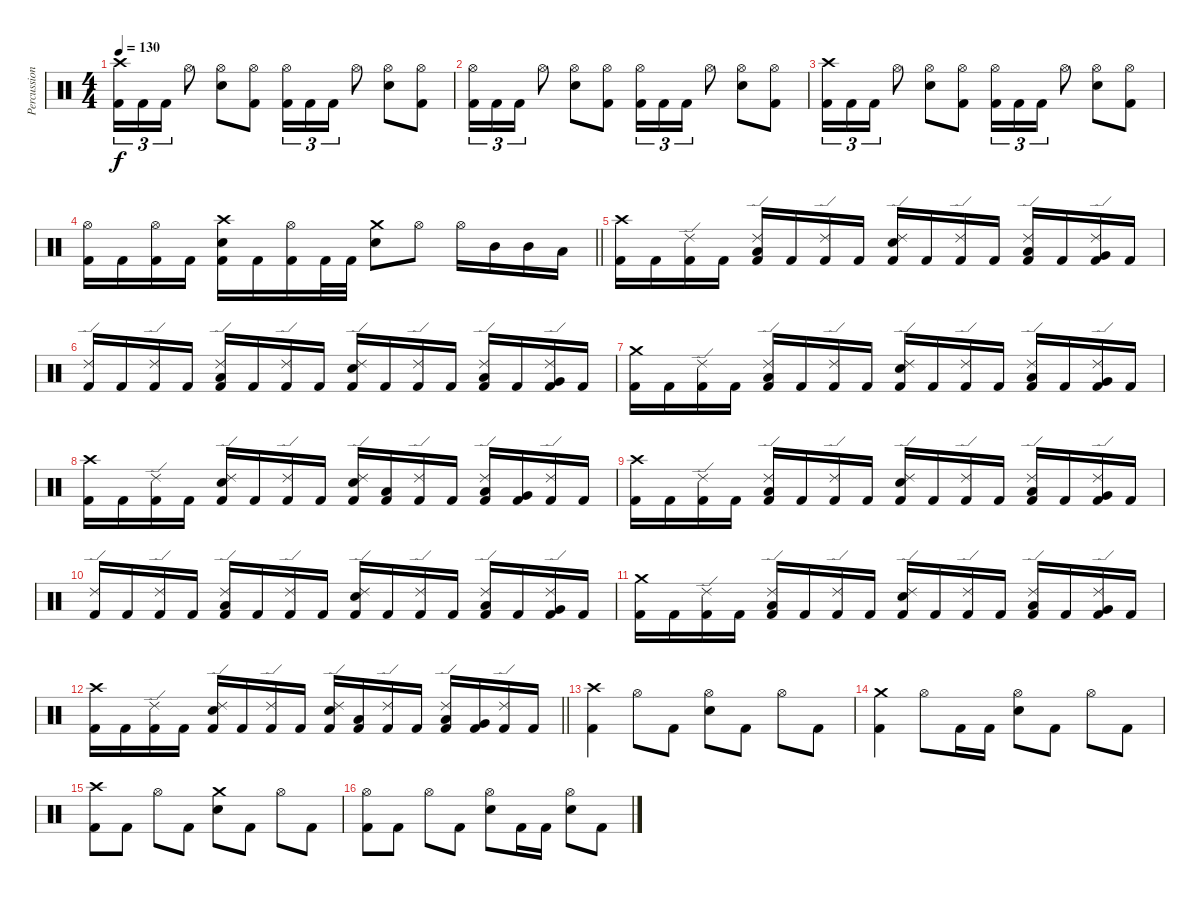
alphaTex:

\track ("Percussion" "Percussion") {instrument percussion}
\staff {score}
\articulation defaults
\ts (4 4)
\tempo 130
\clef neutral
\ks c
("Crash high (hit)" "Kick (hit) 2").16{tu (3 2) dy f} "Kick (hit) 2".16{tu (3 2)} "Kick (hit) 2".16{tu (3 2)} "Hi-Hat (open)".8 ("Hi-Hat (open)" "Electric Snare (hit)").8 ("Hi-Hat (open)" "Kick (hit) 2").8 ("Hi-Hat (open)" "Kick (hit) 2").16{tu (3 2)} "Kick (hit) 2".16{tu (3 2)} "Kick (hit) 2".16{tu (3 2)} "Hi-Hat (open)".8 ("Hi-Hat (open)" "Electric Snare (hit)").8 ("Hi-Hat (open)" "Kick (hit) 2").8 |
("Hi-Hat (open)" "Kick (hit) 2").16{tu (3 2)} "Kick (hit) 2".16{tu (3 2)} "Kick (hit) 2".16{tu (3 2)} "Hi-Hat (open)".8 ("Hi-Hat (open)" "Electric Snare (hit)").8 ("Hi-Hat (open)" "Kick (hit) 2").8 ("Hi-Hat (open)" "Kick (hit) 2").16{tu (3 2)} "Kick (hit) 2".16{tu (3 2)} "Kick (hit) 2".16{tu (3 2)} "Hi-Hat (open)".8 ("Hi-Hat (open)" "Electric Snare (hit)").8 ("Hi-Hat (open)" "Kick (hit) 2").8 |
("Crash high (hit)" "Kick (hit) 2").16{tu (3 2)} "Kick (hit) 2".16{tu (3 2)} "Kick (hit) 2".16{tu (3 2)} "Hi-Hat (open)".8 ("Hi-Hat (open)" "Electric Snare (hit)").8 ("Hi-Hat (open)" "Kick (hit) 2").8 ("Hi-Hat (open)" "Kick (hit) 2").16{tu (3 2)} "Kick (hit) 2".16{tu (3 2)} "Kick (hit) 2".16{tu (3 2)} "Hi-Hat (open)".8 ("Hi-Hat (open)" "Electric Snare (hit)").8 ("Hi-Hat (open)" "Kick (hit) 2").8 |
\barLineRight lightlight
("Hi-Hat (open)" "Kick (hit) 2").16 "Kick (hit) 2".16 ("Hi-Hat (open)" "Kick (hit) 2").16 "Kick (hit) 2".16 ("Crash high (hit)" "Electric Snare (hit)" "Kick (hit) 2").16 "Kick (hit) 2".16 ("Hi-Hat (open)" "Kick (hit) 2").16 "Kick (hit) 2".32 "Kick (hit) 2".32 ("Crash medium (hit)" "Electric Snare (hit)").8 "Hi-Hat (open)".8 "Hi-Hat (open)".16 "Mid Tom (hit)".16 "Mid Tom (hit)".16 "Low Tom (hit)".16 |
("Crash high (hit)" "Kick (hit) 2").16 "Kick (hit) 2".16 ("Ride (edge) 2" "Kick (hit) 2").16 "Kick (hit) 2".16 ("Ride (edge) 2" "Low Tom (hit)" "Kick (hit) 2").16 "Kick (hit) 2".16 ("Ride (edge) 2" "Kick (hit) 2").16 "Kick (hit) 2".16 ("Ride (edge) 2" "Electric Snare (hit)" "Kick (hit) 2").16 "Kick (hit) 2".16 ("Ride (edge) 2" "Kick (hit) 2").16 "Kick (hit) 2".16 ("Ride (edge) 2" "Low Tom (hit)" "Kick (hit) 2").16 "Kick (hit) 2".16 ("Ride (edge) 2" "Very Low Tom (hit)" "Kick (hit) 2").16 "Kick (hit) 2".16 |
("Ride (edge) 2" "Kick (hit) 2").16 "Kick (hit) 2".16 ("Ride (edge) 2" "Kick (hit) 2").16 "Kick (hit) 2".16 ("Ride (edge) 2" "Low Tom (hit)" "Kick (hit) 2").16 "Kick (hit) 2".16 ("Ride (edge) 2" "Kick (hit) 2").16 "Kick (hit) 2".16 ("Ride (edge) 2" "Electric Snare (hit)" "Kick (hit) 2").16 "Kick (hit) 2".16 ("Ride (edge) 2" "Kick (hit) 2").16 "Kick (hit) 2".16 ("Ride (edge) 2" "Low Tom (hit)" "Kick (hit) 2").16 "Kick (hit) 2".16 ("Ride (edge) 2" "Very Low Tom (hit)" "Kick (hit) 2").16 "Kick (hit) 2".16 |
("Crash medium (hit)" "Kick (hit) 2").16 "Kick (hit) 2".16 ("Ride (edge) 2" "Kick (hit) 2").16 "Kick (hit) 2".16 ("Ride (edge) 2" "Low Tom (hit)" "Kick (hit) 2").16 "Kick (hit) 2".16 ("Ride (edge) 2" "Kick (hit) 2").16 "Kick (hit) 2".16 ("Ride (edge) 2" "Electric Snare (hit)" "Kick (hit) 2").16 "Kick (hit) 2".16 ("Ride (edge) 2" "Kick (hit) 2").16 "Kick (hit) 2".16 ("Ride (edge) 2" "Low Tom (hit)" "Kick (hit) 2").16 "Kick (hit) 2".16 ("Ride (edge) 2" "Very Low Tom (hit)" "Kick (hit) 2").16 "Kick (hit) 2".16 |
("Crash high (hit)" "Kick (hit) 2").16 "Kick (hit) 2".16 ("Ride (edge) 2" "Kick (hit) 2").16 "Kick (hit) 2".16 ("Ride (edge) 2" "Electric Snare (hit)" "Kick (hit) 2").16 "Kick (hit) 2".16 ("Ride (edge) 2" "Kick (hit) 2").16 "Kick (hit) 2".16 ("Ride (edge) 2" "Electric Snare (hit)" "Kick (hit) 2").16 ("Low Tom (hit)" "Kick (hit) 2").16 ("Ride (edge) 2" "Kick (hit) 2").16 "Kick (hit) 2".16 ("Ride (edge) 2" "Low Tom (hit)" "Kick (hit) 2").16 ("Very Low Tom (hit)" "Kick (hit) 2").16 ("Ride (edge) 2" "Kick (hit) 2").16 "Kick (hit) 2".16 |
("Crash high (hit)" "Kick (hit) 2").16 "Kick (hit) 2".16 ("Ride (edge) 2" "Kick (hit) 2").16 "Kick (hit) 2".16 ("Ride (edge) 2" "Low Tom (hit)" "Kick (hit) 2").16 "Kick (hit) 2".16 ("Ride (edge) 2" "Kick (hit) 2").16 "Kick (hit) 2".16 ("Ride (edge) 2" "Electric Snare (hit)" "Kick (hit) 2").16 "Kick (hit) 2".16 ("Ride (edge) 2" "Kick (hit) 2").16 "Kick (hit) 2".16 ("Ride (edge) 2" "Low Tom (hit)" "Kick (hit) 2").16 "Kick (hit) 2".16 ("Ride (edge) 2" "Very Low Tom (hit)" "Kick (hit) 2").16 "Kick (hit) 2".16 |
("Ride (edge) 2" "Kick (hit) 2").16 "Kick (hit) 2".16 ("Ride (edge) 2" "Kick (hit) 2").16 "Kick (hit) 2".16 ("Ride (edge) 2" "Low Tom (hit)" "Kick (hit) 2").16 "Kick (hit) 2".16 ("Ride (edge) 2" "Kick (hit) 2").16 "Kick (hit) 2".16 ("Ride (edge) 2" "Electric Snare (hit)" "Kick (hit) 2").16 "Kick (hit) 2".16 ("Ride (edge) 2" "Kick (hit) 2").16 "Kick (hit) 2".16 ("Ride (edge) 2" "Low Tom (hit)" "Kick (hit) 2").16 "Kick (hit) 2".16 ("Ride (edge) 2" "Very Low Tom (hit)" "Kick (hit) 2").16 "Kick (hit) 2".16 |
("Crash medium (hit)" "Kick (hit) 2").16 "Kick (hit) 2".16 ("Ride (edge) 2" "Kick (hit) 2").16 "Kick (hit) 2".16 ("Ride (edge) 2" "Low Tom (hit)" "Kick (hit) 2").16 "Kick (hit) 2".16 ("Ride (edge) 2" "Kick (hit) 2").16 "Kick (hit) 2".16 ("Ride (edge) 2" "Electric Snare (hit)" "Kick (hit) 2").16 "Kick (hit) 2".16 ("Ride (edge) 2" "Kick (hit) 2").16 "Kick (hit) 2".16 ("Ride (edge) 2" "Low Tom (hit)" "Kick (hit) 2").16 "Kick (hit) 2".16 ("Ride (edge) 2" "Very Low Tom (hit)" "Kick (hit) 2").16 "Kick (hit) 2".16 |
\barLineRight lightlight
("Crash high (hit)" "Kick (hit) 2").16 "Kick (hit) 2".16 ("Ride (edge) 2" "Kick (hit) 2").16 "Kick (hit) 2".16 ("Ride (edge) 2" "Electric Snare (hit)" "Kick (hit) 2").16 "Kick (hit) 2".16 ("Ride (edge) 2" "Kick (hit) 2").16 "Kick (hit) 2".16 ("Ride (edge) 2" "Electric Snare (hit)" "Kick (hit) 2").16 ("Low Tom (hit)" "Kick (hit) 2").16 ("Ride (edge) 2" "Kick (hit) 2").16 "Kick (hit) 2".16 ("Ride (edge) 2" "Low Tom (hit)" "Kick (hit) 2").16 ("Very Low Tom (hit)" "Kick (hit) 2").16 ("Ride (edge) 2" "Kick (hit) 2").16 "Kick (hit) 2".16 |
("Crash high (hit)" "Kick (hit) 2").4 "Hi-Hat (open)".8 "Kick (hit) 2".8 ("Hi-Hat (open)" "Electric Snare (hit)").8 "Kick (hit) 2".8 "Hi-Hat (open)".8 "Kick (hit) 2".8 |
("Crash medium (hit)" "Kick (hit) 2").4 "Hi-Hat (open)".8 "Kick (hit) 2".16 "Kick (hit) 2".16 ("Hi-Hat (open)" "Electric Snare (hit)").8 "Kick (hit) 2".8 "Hi-Hat (open)".8 "Kick (hit) 2".8 |
("Crash high (hit)" "Kick (hit) 2").8 "Kick (hit) 2".8 "Hi-Hat (open)".8 "Kick (hit) 2".8 ("Crash medium (hit)" "Electric Snare (hit)").8 "Kick (hit) 2".8 "Hi-Hat (open)".8 "Kick (hit) 2".8 |
("Hi-Hat (open)" "Kick (hit) 2").8 "Kick (hit) 2".8 "Hi-Hat (open)".8 "Kick (hit) 2".8 ("Hi-Hat (open)" "Electric Snare (hit)").8 "Kick (hit) 2".16 "Kick (hit) 2".16 ("Hi-Hat (open)" "Electric Snare (hit)").8 "Kick (hit) 2".8
